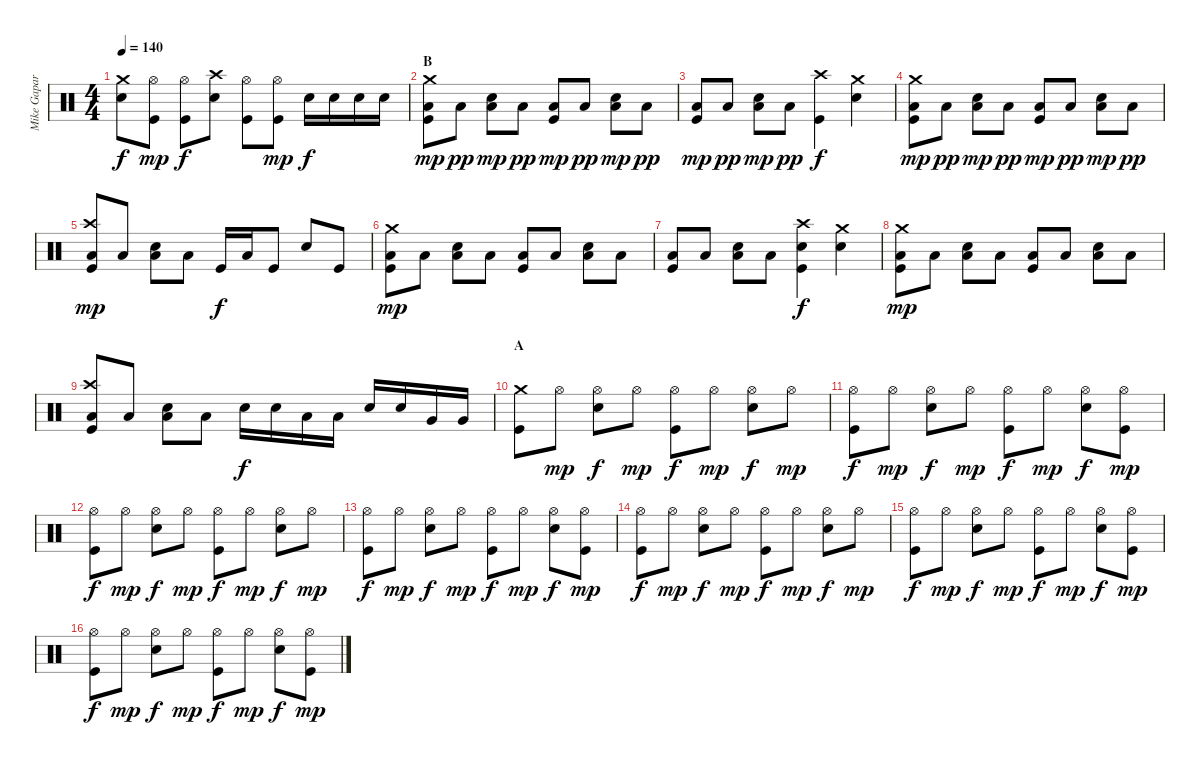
\track ("Mike Gapar" "Mike Gapar") {instrument percussion}
\staff {score}
\articulation defaults
\ts (4 4)
\tempo 140
\clef neutral
\ks c
("Crash medium (hit)" "Electric Snare (hit)").8{dy f} ("Hi-Hat (open)" "Kick (hit)").8{dy mp} ("Hi-Hat (open)" "Kick (hit)").8{dy f} ("Crash high (hit)" "Electric Snare (hit)").8 ("Hi-Hat (open)" "Kick (hit)").8 ("Hi-Hat (open)" "Kick (hit)").8{dy mp} "Electric Snare (hit)".16{dy f} "Electric Snare (hit)".16 "Electric Snare (hit)".16 "Electric Snare (hit)".16 |
\section ("" "B")
("Crash medium (hit)" "Low Floor Tom (hit)" "Kick (hit)").8{dy mp} "Low Floor Tom (hit)".8{dy pp} ("Electric Snare (hit)" "Low Floor Tom (hit)").8{dy mp} "Low Floor Tom (hit)".8{dy pp} ("Low Floor Tom (hit)" "Kick (hit)").8{dy mp} "Low Floor Tom (hit)".8{dy pp} ("Electric Snare (hit)" "Low Floor Tom (hit)").8{dy mp} "Low Floor Tom (hit)".8{dy pp} |
("Low Floor Tom (hit)" "Kick (hit)").8{dy mp} "Low Floor Tom (hit)".8{dy pp} ("Electric Snare (hit)" "Low Floor Tom (hit)").8{dy mp} "Low Floor Tom (hit)".8{dy pp} ("Crash high (hit)" "Kick (hit)").4{dy f} ("Crash medium (hit)" "Electric Snare (hit)").4 |
("Crash medium (hit)" "Low Floor Tom (hit)" "Kick (hit)").8{dy mp} "Low Floor Tom (hit)".8{dy pp} ("Electric Snare (hit)" "Low Floor Tom (hit)").8{dy mp} "Low Floor Tom (hit)".8{dy pp} ("Low Floor Tom (hit)" "Kick (hit)").8{dy mp} "Low Floor Tom (hit)".8{dy pp} ("Electric Snare (hit)" "Low Floor Tom (hit)").8{dy mp} "Low Floor Tom (hit)".8{dy pp} |
("Crash high (hit)" "Low Floor Tom (hit)" "Kick (hit)").8{dy mp} "Low Floor Tom (hit)".8 ("Electric Snare (hit)" "Low Floor Tom (hit)").8 "Low Floor Tom (hit)".8 "Kick (hit)".16{dy f} "Low Tom (hit)".16 "Kick (hit)".8 "Electric Snare (hit)".8 "Kick (hit)".8 |
("Crash medium (hit)" "Low Floor Tom (hit)" "Kick (hit)").8{dy mp} "Low Floor Tom (hit)".8 ("Electric Snare (hit)" "Low Floor Tom (hit)").8 "Low Floor Tom (hit)".8 ("Low Floor Tom (hit)" "Kick (hit)").8 "Low Floor Tom (hit)".8 ("Electric Snare (hit)" "Low Floor Tom (hit)").8 "Low Floor Tom (hit)".8 |
("Low Floor Tom (hit)" "Kick (hit)").8 "Low Floor Tom (hit)".8 ("Electric Snare (hit)" "Low Floor Tom (hit)").8 "Low Floor Tom (hit)".8 ("Crash high (hit)" "Electric Snare (hit)" "Kick (hit)").4{dy f} ("Crash medium (hit)" "Electric Snare (hit)").4 |
("Crash medium (hit)" "Low Floor Tom (hit)" "Kick (hit)").8{dy mp} "Low Floor Tom (hit)".8 ("Electric Snare (hit)" "Low Floor Tom (hit)").8 "Low Floor Tom (hit)".8 ("Low Floor Tom (hit)" "Kick (hit)").8 "Low Floor Tom (hit)".8 ("Electric Snare (hit)" "Low Floor Tom (hit)").8 "Low Floor Tom (hit)".8 |
("Crash high (hit)" "Low Floor Tom (hit)" "Kick (hit)").8 "Low Floor Tom (hit)".8 ("Electric Snare (hit)" "Low Floor Tom (hit)").8 "Low Floor Tom (hit)".8 "Electric Snare (hit)".16{dy f} "Electric Snare (hit)".16 "Low Tom (hit)".16 "Low Tom (hit)".16 "Electric Snare (hit)".16 "Electric Snare (hit)".16 "Very Low Tom (hit)".16 "Very Low Tom (hit)".16 |
\section ("" "A")
("Crash medium (hit)" "Kick (hit)").8 "Hi-Hat (open)".8{dy mp} ("Hi-Hat (open)" "Electric Snare (hit)").8{dy f} "Hi-Hat (open)".8{dy mp} ("Hi-Hat (open)" "Kick (hit)").8{dy f} "Hi-Hat (open)".8{dy mp} ("Hi-Hat (open)" "Electric Snare (hit)").8{dy f} "Hi-Hat (open)".8{dy mp} |
("Hi-Hat (open)" "Kick (hit)").8{dy f} "Hi-Hat (open)".8{dy mp} ("Hi-Hat (open)" "Electric Snare (hit)").8{dy f} "Hi-Hat (open)".8{dy mp} ("Hi-Hat (open)" "Kick (hit)").8{dy f} "Hi-Hat (open)".8{dy mp} ("Hi-Hat (open)" "Electric Snare (hit)").8{dy f} ("Hi-Hat (open)" "Kick (hit)").8{dy mp} |
("Hi-Hat (open)" "Kick (hit)").8{dy f} "Hi-Hat (open)".8{dy mp} ("Hi-Hat (open)" "Electric Snare (hit)").8{dy f} "Hi-Hat (open)".8{dy mp} ("Hi-Hat (open)" "Kick (hit)").8{dy f} "Hi-Hat (open)".8{dy mp} ("Hi-Hat (open)" "Electric Snare (hit)").8{dy f} "Hi-Hat (open)".8{dy mp} |
("Hi-Hat (open)" "Kick (hit)").8{dy f} "Hi-Hat (open)".8{dy mp} ("Hi-Hat (open)" "Electric Snare (hit)").8{dy f} "Hi-Hat (open)".8{dy mp} ("Hi-Hat (open)" "Kick (hit)").8{dy f} "Hi-Hat (open)".8{dy mp} ("Hi-Hat (open)" "Electric Snare (hit)").8{dy f} ("Hi-Hat (open)" "Kick (hit)").8{dy mp} |
("Hi-Hat (open)" "Kick (hit)").8{dy f} "Hi-Hat (open)".8{dy mp} ("Hi-Hat (open)" "Electric Snare (hit)").8{dy f} "Hi-Hat (open)".8{dy mp} ("Hi-Hat (open)" "Kick (hit)").8{dy f} "Hi-Hat (open)".8{dy mp} ("Hi-Hat (open)" "Electric Snare (hit)").8{dy f} "Hi-Hat (open)".8{dy mp} |
("Hi-Hat (open)" "Kick (hit)").8{dy f} "Hi-Hat (open)".8{dy mp} ("Hi-Hat (open)" "Electric Snare (hit)").8{dy f} "Hi-Hat (open)".8{dy mp} ("Hi-Hat (open)" "Kick (hit)").8{dy f} "Hi-Hat (open)".8{dy mp} ("Hi-Hat (open)" "Electric Snare (hit)").8{dy f} ("Hi-Hat (open)" "Kick (hit)").8{dy mp} |
("Hi-Hat (open)" "Kick (hit)").8{dy f} "Hi-Hat (open)".8{dy mp} ("Hi-Hat (open)" "Electric Snare (hit)").8{dy f} "Hi-Hat (open)".8{dy mp} ("Hi-Hat (open)" "Kick (hit)").8{dy f} "Hi-Hat (open)".8{dy mp} ("Hi-Hat (open)" "Electric Snare (hit)").8{dy f} ("Hi-Hat (open)" "Kick (hit)").8{dy mp}
